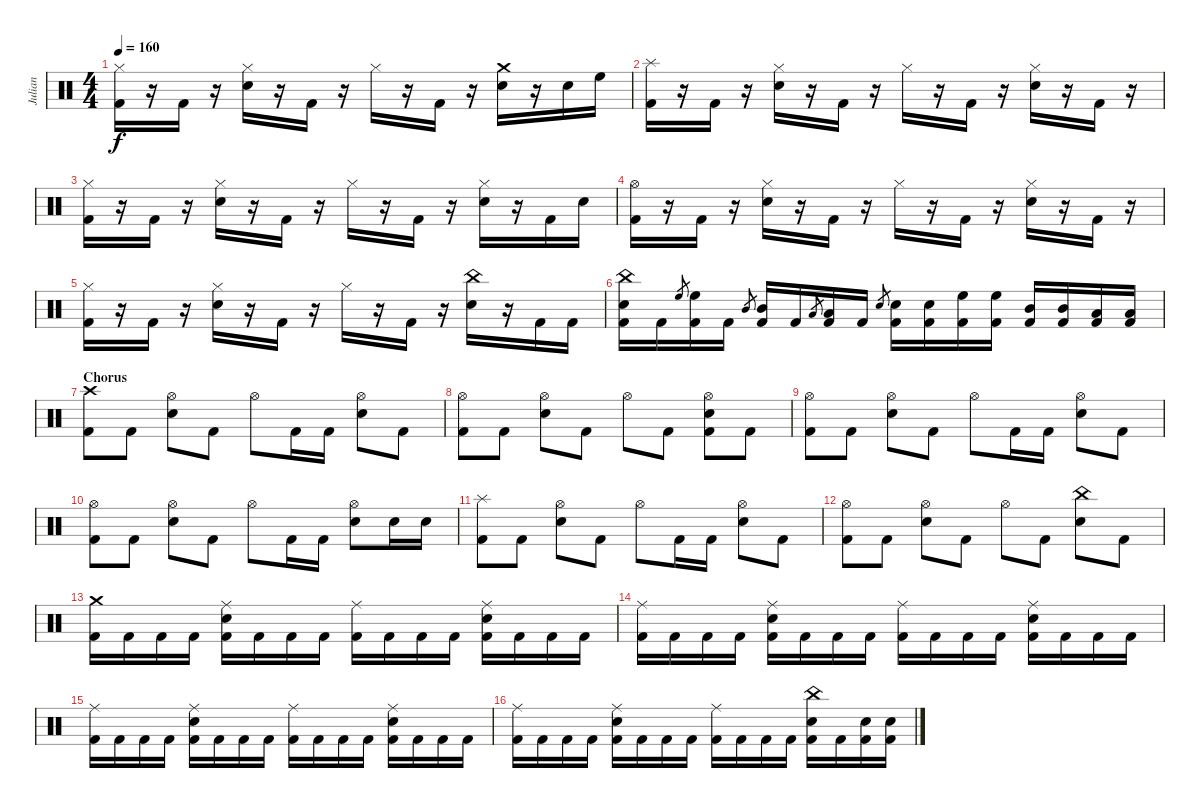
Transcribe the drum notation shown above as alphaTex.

\track ("Julian" "Julian") {instrument percussion}
\staff {score}
\articulation defaults
\ts (4 4)
\tempo 160
\clef neutral
\ks c
("Hi-Hat (closed)" "Kick (hit) 2").16{dy f} r.16 "Kick (hit) 2".16 r.16 ("Hi-Hat (closed)" "Electric Snare (hit)").16 r.16 "Kick (hit) 2".16 r.16 "Hi-Hat (closed)".16 r.16 "Kick (hit) 2".16 r.16 ("Crash medium (hit)" "Electric Snare (hit)").16 r.16 "Electric Snare (hit)".16 "High Floor Tom (hit)".16 |
("Splash (hit)" "Kick (hit) 2").16 r.16 "Kick (hit) 2".16 r.16 ("Hi-Hat (closed)" "Electric Snare (hit)").16 r.16 "Kick (hit) 2".16 r.16 "Hi-Hat (closed)".16 r.16 "Kick (hit) 2".16 r.16 ("Hi-Hat (closed)" "Electric Snare (hit)").16 r.16 "Kick (hit) 2".16 r.16 |
("Hi-Hat (closed)" "Kick (hit) 2").16 r.16 "Kick (hit) 2".16 r.16 ("Hi-Hat (closed)" "Electric Snare (hit)").16 r.16 "Kick (hit) 2".16 r.16 "Hi-Hat (closed)".16 r.16 "Kick (hit) 2".16 r.16 ("Hi-Hat (closed)" "Electric Snare (hit)").16 r.16 "Kick (hit) 2".16 "Electric Snare (hit)".16 |
("Hi-Hat (open)" "Kick (hit) 2").16 r.16 "Kick (hit) 2".16 r.16 ("Hi-Hat (closed)" "Electric Snare (hit)").16 r.16 "Kick (hit) 2".16 r.16 "Hi-Hat (closed)".16 r.16 "Kick (hit) 2".16 r.16 ("Hi-Hat (closed)" "Electric Snare (hit)").16 r.16 "Kick (hit) 2".16 r.16 |
("Hi-Hat (closed)" "Kick (hit) 2").16 r.16 "Kick (hit) 2".16 r.16 ("Hi-Hat (closed)" "Electric Snare (hit)").16 r.16 "Kick (hit) 2".16 r.16 "Hi-Hat (closed)".16 r.16 "Kick (hit) 2".16 r.16 ("China (hit)" "Electric Snare (hit)").16 r.16 "Kick (hit) 2".16 "Kick (hit) 2".16 |
("China (hit)" "Electric Snare (hit)" "Kick (hit) 2").16 "Kick (hit) 2".16 "High Floor Tom (hit)".8{gr} ("High Floor Tom (hit)" "Kick (hit) 2").16 "Kick (hit) 2".16 "Mid Tom (hit)".8{gr} ("Mid Tom (hit)" "Kick (hit) 2").16 "Kick (hit) 2".16 "Low Tom (hit)".8{gr} ("Low Tom (hit)" "Kick (hit) 2").16 "Kick (hit) 2".16 "Electric Snare (hit)".8{gr} ("Electric Snare (hit)" "Kick (hit) 2").16 ("Electric Snare (hit)" "Kick (hit) 2").16 ("High Floor Tom (hit)" "Kick (hit) 2").16 ("High Floor Tom (hit)" "Kick (hit) 2").16 ("Mid Tom (hit)" "Kick (hit) 2").16 ("Mid Tom (hit)" "Kick (hit) 2").16 ("Low Tom (hit)" "Kick (hit) 2").16 ("Low Tom (hit)" "Kick (hit) 2").16 |
\section ("" "Chorus")
("Crash high (hit)" "Kick (hit) 2").8 "Kick (hit) 2".8 ("Hi-Hat (open)" "Electric Snare (hit)").8 "Kick (hit) 2".8 "Hi-Hat (open)".8 "Kick (hit) 2".16 "Kick (hit) 2".16 ("Hi-Hat (open)" "Electric Snare (hit)").8 "Kick (hit) 2".8 |
("Hi-Hat (open)" "Kick (hit) 2").8 "Kick (hit) 2".8 ("Hi-Hat (open)" "Electric Snare (hit)").8 "Kick (hit) 2".8 "Hi-Hat (open)".8 "Kick (hit) 2".8 ("Hi-Hat (open)" "Electric Snare (hit)" "Kick (hit) 2").8 "Kick (hit) 2".8 |
("Hi-Hat (open)" "Kick (hit) 2").8 "Kick (hit) 2".8 ("Hi-Hat (open)" "Electric Snare (hit)").8 "Kick (hit) 2".8 "Hi-Hat (open)".8 "Kick (hit) 2".16 "Kick (hit) 2".16 ("Hi-Hat (open)" "Electric Snare (hit)").8 "Kick (hit) 2".8 |
("Hi-Hat (open)" "Kick (hit) 2").8 "Kick (hit) 2".8 ("Hi-Hat (open)" "Electric Snare (hit)").8 "Kick (hit) 2".8 "Hi-Hat (open)".8 "Kick (hit) 2".16 "Kick (hit) 2".16 ("Hi-Hat (open)" "Electric Snare (hit)").8 "Electric Snare (hit)".16 "Electric Snare (hit)".16 |
("Splash (hit)" "Kick (hit) 2").8 "Kick (hit) 2".8 ("Hi-Hat (open)" "Electric Snare (hit)").8 "Kick (hit) 2".8 "Hi-Hat (open)".8 "Kick (hit) 2".16 "Kick (hit) 2".16 ("Hi-Hat (open)" "Electric Snare (hit)").8 "Kick (hit) 2".8 |
("Hi-Hat (open)" "Kick (hit) 2").8 "Kick (hit) 2".8 ("Hi-Hat (open)" "Electric Snare (hit)").8 "Kick (hit) 2".8 "Hi-Hat (open)".8 "Kick (hit) 2".8 ("China (hit)" "Electric Snare (hit)").8 "Kick (hit) 2".8 |
("Crash medium (hit)" "Kick (hit) 2").16 "Kick (hit) 2".16 "Kick (hit) 2".16 "Kick (hit) 2".16 ("Ride (middle)" "Electric Snare (hit)" "Kick (hit) 2").16 "Kick (hit) 2".16 "Kick (hit) 2".16 "Kick (hit) 2".16 ("Ride (middle)" "Kick (hit) 2").16 "Kick (hit) 2".16 "Kick (hit) 2".16 "Kick (hit) 2".16 ("Ride (middle)" "Electric Snare (hit)" "Kick (hit) 2").16 "Kick (hit) 2".16 "Kick (hit) 2".16 "Kick (hit) 2".16 |
("Ride (middle)" "Kick (hit) 2").16 "Kick (hit) 2".16 "Kick (hit) 2".16 "Kick (hit) 2".16 ("Ride (middle)" "Electric Snare (hit)" "Kick (hit) 2").16 "Kick (hit) 2".16 "Kick (hit) 2".16 "Kick (hit) 2".16 ("Ride (middle)" "Kick (hit) 2").16 "Kick (hit) 2".16 "Kick (hit) 2".16 "Kick (hit) 2".16 ("Ride (middle)" "Electric Snare (hit)" "Kick (hit) 2").16 "Kick (hit) 2".16 "Kick (hit) 2".16 "Kick (hit) 2".16 |
("Ride (middle)" "Kick (hit) 2").16 "Kick (hit) 2".16 "Kick (hit) 2".16 "Kick (hit) 2".16 ("Ride (middle)" "Electric Snare (hit)" "Kick (hit) 2").16 "Kick (hit) 2".16 "Kick (hit) 2".16 "Kick (hit) 2".16 ("Ride (middle)" "Kick (hit) 2").16 "Kick (hit) 2".16 "Kick (hit) 2".16 "Kick (hit) 2".16 ("Ride (middle)" "Electric Snare (hit)" "Kick (hit) 2").16 "Kick (hit) 2".16 "Kick (hit) 2".16 "Kick (hit) 2".16 |
("Ride (middle)" "Kick (hit) 2").16 "Kick (hit) 2".16 "Kick (hit) 2".16 "Kick (hit) 2".16 ("Ride (middle)" "Electric Snare (hit)" "Kick (hit) 2").16 "Kick (hit) 2".16 "Kick (hit) 2".16 "Kick (hit) 2".16 ("Ride (middle)" "Kick (hit) 2").16 "Kick (hit) 2".16 "Kick (hit) 2".16 "Kick (hit) 2".16 ("China (hit)" "Electric Snare (hit)" "Kick (hit) 2").16 "Kick (hit) 2".16 ("Electric Snare (hit)" "Kick (hit) 2").16 ("Electric Snare (hit)" "Kick (hit) 2").16
